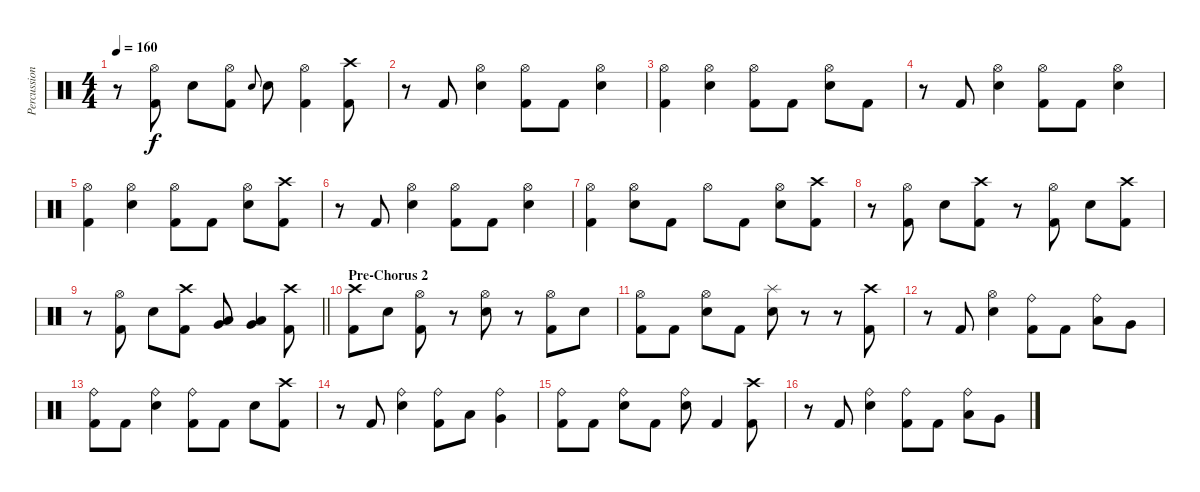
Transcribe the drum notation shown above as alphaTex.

\track ("Percussion" "Percussion") {instrument percussion}
\staff {score}
\articulation defaults
\ts (4 4)
\tempo 160
\clef neutral
\ks c
r.8{dy f} ("Hi-Hat (open)" "Kick (hit) 2").8 "Electric Snare (hit)".8 ("Hi-Hat (open)" "Kick (hit) 2").8 "Electric Snare (hit)".8{gr onbeat} "Electric Snare (hit)".8 ("Hi-Hat (open)" "Kick (hit) 2").4 ("Crash high (hit)" "Kick (hit) 2").8 |
r.8 "Kick (hit) 2".8 ("Hi-Hat (open)" "Electric Snare (hit)").4 ("Hi-Hat (open)" "Kick (hit) 2").8 "Kick (hit) 2".8 ("Hi-Hat (open)" "Electric Snare (hit)").4 |
("Hi-Hat (open)" "Kick (hit) 2").4 ("Hi-Hat (open)" "Electric Snare (hit)").4 ("Hi-Hat (open)" "Kick (hit) 2").8 "Kick (hit) 2".8 ("Hi-Hat (open)" "Electric Snare (hit)").8 "Kick (hit) 2".8 |
r.8 "Kick (hit) 2".8 ("Hi-Hat (open)" "Electric Snare (hit)").4 ("Hi-Hat (open)" "Kick (hit) 2").8 "Kick (hit) 2".8 ("Hi-Hat (open)" "Electric Snare (hit)").4 |
("Hi-Hat (open)" "Kick (hit) 2").4 ("Hi-Hat (open)" "Electric Snare (hit)").4 ("Hi-Hat (open)" "Kick (hit) 2").8 "Kick (hit) 2".8 ("Hi-Hat (open)" "Electric Snare (hit)").8 ("Crash high (hit)" "Kick (hit) 2").8 |
r.8 "Kick (hit) 2".8 ("Hi-Hat (open)" "Electric Snare (hit)").4 ("Hi-Hat (open)" "Kick (hit) 2").8 "Kick (hit) 2".8 ("Hi-Hat (open)" "Electric Snare (hit)").4 |
("Hi-Hat (open)" "Kick (hit) 2").4 ("Hi-Hat (open)" "Electric Snare (hit)").8 "Kick (hit) 2".8 "Hi-Hat (open)".8 "Kick (hit) 2".8 ("Hi-Hat (open)" "Electric Snare (hit)").8 ("Crash high (hit)" "Kick (hit) 2").8 |
r.8 ("Hi-Hat (open)" "Kick (hit) 2").8 "Electric Snare (hit)".8 ("Crash high (hit)" "Kick (hit) 2").8 r.8 ("Hi-Hat (open)" "Kick (hit) 2").8 "Electric Snare (hit)".8 ("Crash high (hit)" "Kick (hit) 2").8 |
\barLineRight lightlight
r.8 ("Hi-Hat (open)" "Kick (hit) 2").8 "Electric Snare (hit)".8 ("Crash high (hit)" "Kick (hit) 2").8 ("Very Low Tom (hit)" "Low Floor Tom (hit)").8 ("Very Low Tom (hit)" "Low Floor Tom (hit)").4 ("Crash high (hit)" "Kick (hit) 2").8 |
\section ("" "Pre-Chorus 2")
("Crash high (hit)" "Kick (hit) 2").8 "Electric Snare (hit)".8 ("Hi-Hat (open)" "Kick (hit) 2").8 r.8 ("Hi-Hat (open)" "Electric Snare (hit)").8 r.8 ("Hi-Hat (open)" "Kick (hit) 2").8 "Electric Snare (hit)".8 |
("Hi-Hat (open)" "Kick (hit) 2").8 "Kick (hit) 2".8 ("Hi-Hat (open)" "Electric Snare (hit)").8 "Kick (hit) 2".8 ("Splash (hit)" "Electric Snare (hit)").8 r.8 r.8 ("Crash high (hit)" "Kick (hit) 2").8 |
r.8 "Kick (hit) 2".8 ("Hi-Hat (open)" "Electric Snare (hit)").4 ("Ride (bell)" "Kick (hit) 2").8 "Kick (hit) 2".8 ("Ride (bell)" "Low Tom (hit)").8 "Very Low Tom (hit)".8 |
("Ride (bell)" "Kick (hit) 2").8 "Kick (hit) 2".8 ("Ride (bell)" "Electric Snare (hit)").4 ("Ride (bell)" "Kick (hit) 2").8 "Kick (hit) 2".8 "Electric Snare (hit)".8 ("Crash high (hit)" "Kick (hit) 2").8 |
r.8 "Kick (hit) 2".8 ("Ride (bell)" "Electric Snare (hit)").4 ("Ride (bell)" "Kick (hit) 2").8 "Low Tom (hit)".8 ("Ride (bell)" "Very Low Tom (hit)").4 |
("Ride (bell)" "Kick (hit) 2").8 "Kick (hit) 2".8 ("Ride (bell)" "Electric Snare (hit)").8 "Kick (hit) 2".8 ("Ride (bell)" "Electric Snare (hit)").8 "Kick (hit) 2".4 ("Crash high (hit)" "Kick (hit) 2").8 |
r.8 "Kick (hit) 2".8 ("Ride (bell)" "Electric Snare (hit)").4 ("Ride (bell)" "Kick (hit) 2").8 "Kick (hit) 2".8 ("Ride (bell)" "Low Tom (hit)").8 "Very Low Tom (hit)".8
